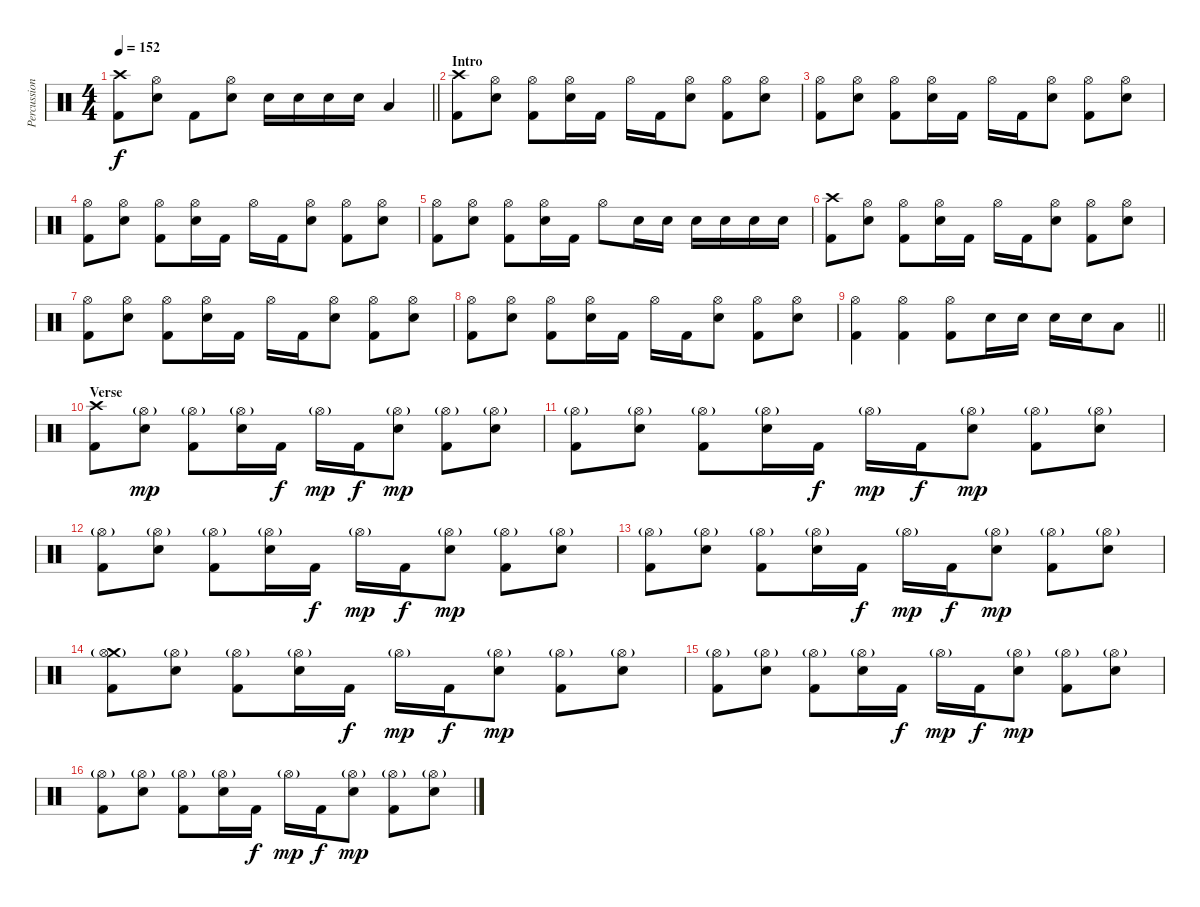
\track ("Percussion" "Percussion") {instrument percussion}
\staff {score}
\articulation defaults
\ts (4 4)
\tempo 152
\clef neutral
\barLineRight lightlight
\ks c
("Crash high (hit)" "Kick (hit) 2").8{dy f} ("Hi-Hat (open)" "Electric Snare (hit)").8 "Kick (hit) 2".8 ("Hi-Hat (open)" "Electric Snare (hit)").8 "Electric Snare (hit)".16 "Electric Snare (hit)".16 "Electric Snare (hit)".16 "Electric Snare (hit)".16 "Low Tom (hit)".4 |
\section ("" "Intro")
("Crash high (hit)" "Kick (hit) 2").8 ("Hi-Hat (open)" "Electric Snare (hit)").8 ("Hi-Hat (open)" "Kick (hit) 2").8 ("Hi-Hat (open)" "Electric Snare (hit)").16 "Kick (hit) 2".16 "Hi-Hat (open)".16 "Kick (hit) 2".16 ("Hi-Hat (open)" "Electric Snare (hit)").8 ("Hi-Hat (open)" "Kick (hit) 2").8 ("Hi-Hat (open)" "Electric Snare (hit)").8 |
("Hi-Hat (open)" "Kick (hit) 2").8 ("Hi-Hat (open)" "Electric Snare (hit)").8 ("Hi-Hat (open)" "Kick (hit) 2").8 ("Hi-Hat (open)" "Electric Snare (hit)").16 "Kick (hit) 2".16 "Hi-Hat (open)".16 "Kick (hit) 2".16 ("Hi-Hat (open)" "Electric Snare (hit)").8 ("Hi-Hat (open)" "Kick (hit) 2").8 ("Hi-Hat (open)" "Electric Snare (hit)").8 |
("Hi-Hat (open)" "Kick (hit) 2").8 ("Hi-Hat (open)" "Electric Snare (hit)").8 ("Hi-Hat (open)" "Kick (hit) 2").8 ("Hi-Hat (open)" "Electric Snare (hit)").16 "Kick (hit) 2".16 "Hi-Hat (open)".16 "Kick (hit) 2".16 ("Hi-Hat (open)" "Electric Snare (hit)").8 ("Hi-Hat (open)" "Kick (hit) 2").8 ("Hi-Hat (open)" "Electric Snare (hit)").8 |
("Hi-Hat (open)" "Kick (hit) 2").8 ("Hi-Hat (open)" "Electric Snare (hit)").8 ("Hi-Hat (open)" "Kick (hit) 2").8 ("Hi-Hat (open)" "Electric Snare (hit)").16 "Kick (hit) 2".16 "Hi-Hat (open)".8 "Electric Snare (hit)".16 "Electric Snare (hit)".16 "Electric Snare (hit)".16 "Electric Snare (hit)".16 "Electric Snare (hit)".16 "Electric Snare (hit)".16 |
("Crash high (hit)" "Kick (hit) 2").8 ("Hi-Hat (open)" "Electric Snare (hit)").8 ("Hi-Hat (open)" "Kick (hit) 2").8 ("Hi-Hat (open)" "Electric Snare (hit)").16 "Kick (hit) 2".16 "Hi-Hat (open)".16 "Kick (hit) 2".16 ("Hi-Hat (open)" "Electric Snare (hit)").8 ("Hi-Hat (open)" "Kick (hit) 2").8 ("Hi-Hat (open)" "Electric Snare (hit)").8 |
("Hi-Hat (open)" "Kick (hit) 2").8 ("Hi-Hat (open)" "Electric Snare (hit)").8 ("Hi-Hat (open)" "Kick (hit) 2").8 ("Hi-Hat (open)" "Electric Snare (hit)").16 "Kick (hit) 2".16 "Hi-Hat (open)".16 "Kick (hit) 2".16 ("Hi-Hat (open)" "Electric Snare (hit)").8 ("Hi-Hat (open)" "Kick (hit) 2").8 ("Hi-Hat (open)" "Electric Snare (hit)").8 |
("Hi-Hat (open)" "Kick (hit) 2").8 ("Hi-Hat (open)" "Electric Snare (hit)").8 ("Hi-Hat (open)" "Kick (hit) 2").8 ("Hi-Hat (open)" "Electric Snare (hit)").16 "Kick (hit) 2".16 "Hi-Hat (open)".16 "Kick (hit) 2".16 ("Hi-Hat (open)" "Electric Snare (hit)").8 ("Hi-Hat (open)" "Kick (hit) 2").8 ("Hi-Hat (open)" "Electric Snare (hit)").8 |
\barLineRight lightlight
("Hi-Hat (open)" "Kick (hit) 2").4 ("Hi-Hat (open)" "Kick (hit) 2").4 ("Hi-Hat (open)" "Kick (hit) 2").8 "Electric Snare (hit)".16 "Electric Snare (hit)".16 "Electric Snare (hit)".16 "Electric Snare (hit)".16 "Low Tom (hit)".8 |
\section ("" "Verse")
("Crash high (hit)" "Kick (hit) 2").8 ("Hi-Hat (open)"{g} "Electric Snare (hit)").8{dy mp} ("Hi-Hat (open)"{g} "Kick (hit) 2").8 ("Hi-Hat (open)"{g} "Electric Snare (hit)").16 "Kick (hit) 2".16{dy f} "Hi-Hat (open)"{g}.16{dy mp} "Kick (hit) 2".16{dy f} ("Hi-Hat (open)"{g} "Electric Snare (hit)").8{dy mp} ("Hi-Hat (open)"{g} "Kick (hit) 2").8 ("Hi-Hat (open)"{g} "Electric Snare (hit)").8 |
("Hi-Hat (open)"{g} "Kick (hit) 2").8 ("Hi-Hat (open)"{g} "Electric Snare (hit)").8 ("Hi-Hat (open)"{g} "Kick (hit) 2").8 ("Hi-Hat (open)"{g} "Electric Snare (hit)").16 "Kick (hit) 2".16{dy f} "Hi-Hat (open)"{g}.16{dy mp} "Kick (hit) 2".16{dy f} ("Hi-Hat (open)"{g} "Electric Snare (hit)").8{dy mp} ("Hi-Hat (open)"{g} "Kick (hit) 2").8 ("Hi-Hat (open)"{g} "Electric Snare (hit)").8 |
("Hi-Hat (open)"{g} "Kick (hit) 2").8 ("Hi-Hat (open)"{g} "Electric Snare (hit)").8 ("Hi-Hat (open)"{g} "Kick (hit) 2").8 ("Hi-Hat (open)"{g} "Electric Snare (hit)").16 "Kick (hit) 2".16{dy f} "Hi-Hat (open)"{g}.16{dy mp} "Kick (hit) 2".16{dy f} ("Hi-Hat (open)"{g} "Electric Snare (hit)").8{dy mp} ("Hi-Hat (open)"{g} "Kick (hit) 2").8 ("Hi-Hat (open)"{g} "Electric Snare (hit)").8 |
("Hi-Hat (open)"{g} "Kick (hit) 2").8 ("Hi-Hat (open)"{g} "Electric Snare (hit)").8 ("Hi-Hat (open)"{g} "Kick (hit) 2").8 ("Hi-Hat (open)"{g} "Electric Snare (hit)").16 "Kick (hit) 2".16{dy f} "Hi-Hat (open)"{g}.16{dy mp} "Kick (hit) 2".16{dy f} ("Hi-Hat (open)"{g} "Electric Snare (hit)").8{dy mp} ("Hi-Hat (open)"{g} "Kick (hit) 2").8 ("Hi-Hat (open)"{g} "Electric Snare (hit)").8 |
("Crash medium (hit)" "Hi-Hat (open)"{g} "Kick (hit) 2").8 ("Hi-Hat (open)"{g} "Electric Snare (hit)").8 ("Hi-Hat (open)"{g} "Kick (hit) 2").8 ("Hi-Hat (open)"{g} "Electric Snare (hit)").16 "Kick (hit) 2".16{dy f} "Hi-Hat (open)"{g}.16{dy mp} "Kick (hit) 2".16{dy f} ("Hi-Hat (open)"{g} "Electric Snare (hit)").8{dy mp} ("Hi-Hat (open)"{g} "Kick (hit) 2").8 ("Hi-Hat (open)"{g} "Electric Snare (hit)").8 |
("Hi-Hat (open)"{g} "Kick (hit) 2").8 ("Hi-Hat (open)"{g} "Electric Snare (hit)").8 ("Hi-Hat (open)"{g} "Kick (hit) 2").8 ("Hi-Hat (open)"{g} "Electric Snare (hit)").16 "Kick (hit) 2".16{dy f} "Hi-Hat (open)"{g}.16{dy mp} "Kick (hit) 2".16{dy f} ("Hi-Hat (open)"{g} "Electric Snare (hit)").8{dy mp} ("Hi-Hat (open)"{g} "Kick (hit) 2").8 ("Hi-Hat (open)"{g} "Electric Snare (hit)").8 |
("Hi-Hat (open)"{g} "Kick (hit) 2").8 ("Hi-Hat (open)"{g} "Electric Snare (hit)").8 ("Hi-Hat (open)"{g} "Kick (hit) 2").8 ("Hi-Hat (open)"{g} "Electric Snare (hit)").16 "Kick (hit) 2".16{dy f} "Hi-Hat (open)"{g}.16{dy mp} "Kick (hit) 2".16{dy f} ("Hi-Hat (open)"{g} "Electric Snare (hit)").8{dy mp} ("Hi-Hat (open)"{g} "Kick (hit) 2").8 ("Hi-Hat (open)"{g} "Electric Snare (hit)").8
